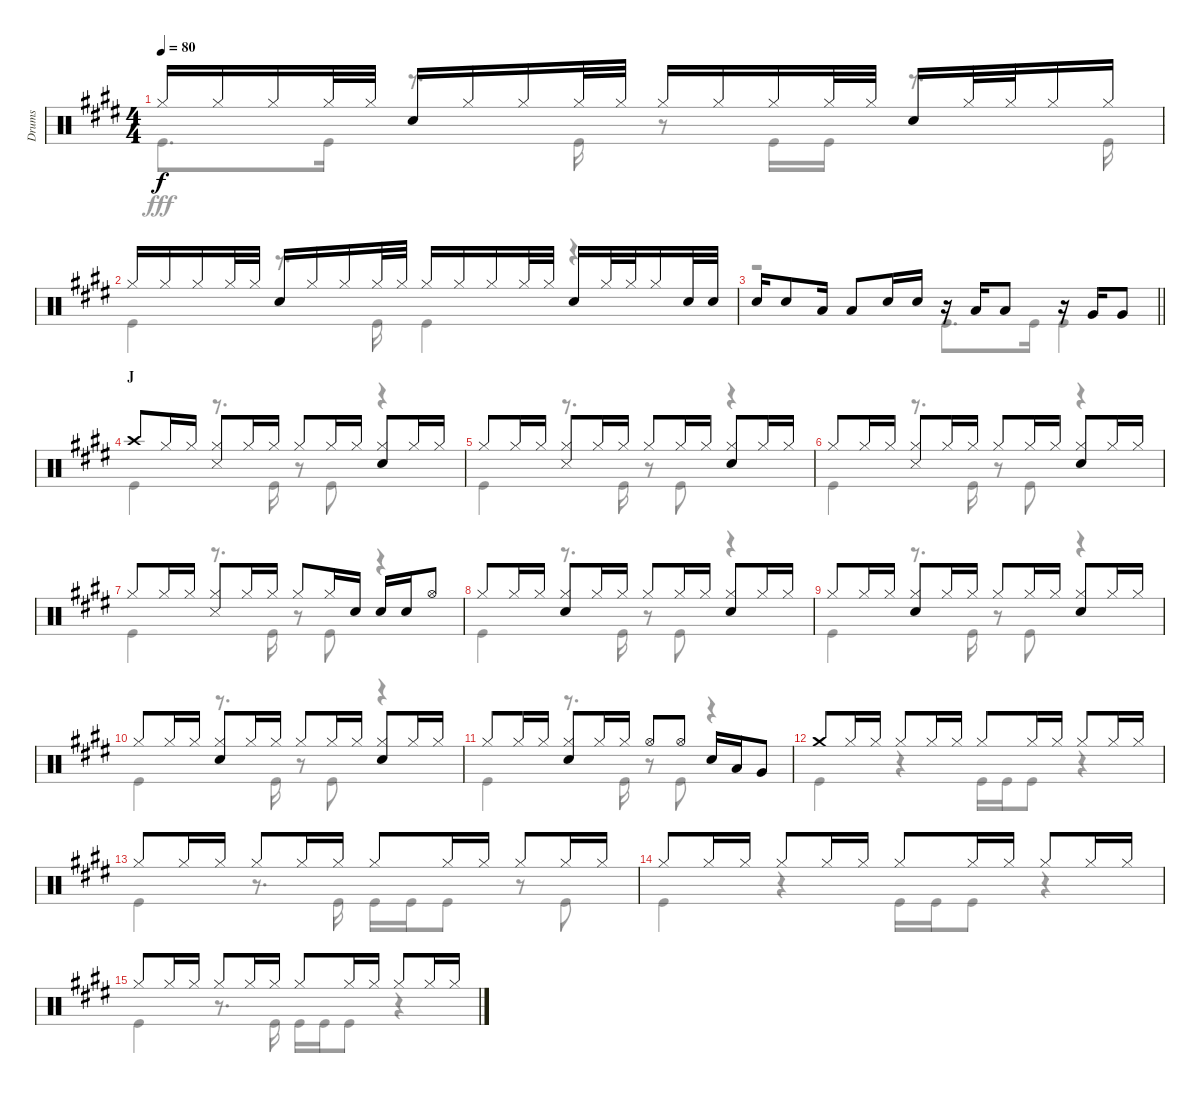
\track ("Drums" "Drums") {instrument percussion}
\staff {score}
\articulation defaults
\voice
\ts (4 4)
\tempo 80
\clef neutral
\ks e "Hi-Hat (closed)".16{dy f} "Hi-Hat (closed)".16 "Hi-Hat (closed)".16 "Hi-Hat (closed)".32 "Hi-Hat (closed)".32 "Snare (hit) 2".16 "Hi-Hat (closed)".16 "Hi-Hat (closed)".16 "Hi-Hat (closed)".32 "Hi-Hat (closed)".32 "Hi-Hat (closed)".16 "Hi-Hat (closed)".16 "Hi-Hat (closed)".16 "Hi-Hat (closed)".32 "Hi-Hat (closed)".32 "Snare (hit) 2".16 "Hi-Hat (closed)".32 "Hi-Hat (closed)".32 "Hi-Hat (closed)".16 "Hi-Hat (closed)".16
|
"Hi-Hat (closed)".16 "Hi-Hat (closed)".16 "Hi-Hat (closed)".16 "Hi-Hat (closed)".32 "Hi-Hat (closed)".32 "Snare (hit) 2".16 "Hi-Hat (closed)".16 "Hi-Hat (closed)".16 "Hi-Hat (closed)".32 "Hi-Hat (closed)".32 "Hi-Hat (closed)".16 "Hi-Hat (closed)".16 "Hi-Hat (closed)".16 "Hi-Hat (closed)".32 "Hi-Hat (closed)".32 "Snare (hit) 2".16 "Hi-Hat (closed)".32 "Hi-Hat (closed)".32 "Hi-Hat (closed)".16 "Snare (hit) 2".32 "Snare (hit) 2".32 |
\barLineRight lightlight "Snare (hit) 2".16 "Snare (hit) 2".8 "Low Tom (hit)".16 "Low Tom (hit)".8 "Snare (hit) 2".16 "Snare (hit) 2".16
r.16 "Low Tom (hit)".16 "Low Tom (hit)".8 r.16 "Very Low Tom (hit)".16 "Very Low Tom (hit)".8 |
\section ("" "J")
"Crash high (hit)".8 "Hi-Hat (closed)".16 "Hi-Hat (closed)".16 ("Hi-Hat (closed)" "Snare (side stick) 3").8 "Hi-Hat (closed)".16 "Hi-Hat (closed)".16 "Hi-Hat (closed)".8 "Hi-Hat (closed)".16 "Hi-Hat (closed)".16 ("Hi-Hat (closed)" "Snare (hit) 2").8 "Hi-Hat (closed)".16 "Hi-Hat (closed)".16 |
"Hi-Hat (closed)".8 "Hi-Hat (closed)".16 "Hi-Hat (closed)".16 ("Hi-Hat (closed)" "Snare (side stick) 3").8 "Hi-Hat (closed)".16 "Hi-Hat (closed)".16 "Hi-Hat (closed)".8 "Hi-Hat (closed)".16 "Hi-Hat (closed)".16 ("Hi-Hat (closed)" "Snare (hit) 2").8 "Hi-Hat (closed)".16 "Hi-Hat (closed)".16 |
"Hi-Hat (closed)".8 "Hi-Hat (closed)".16 "Hi-Hat (closed)".16 ("Hi-Hat (closed)" "Snare (side stick) 3").8 "Hi-Hat (closed)".16 "Hi-Hat (closed)".16 "Hi-Hat (closed)".8 "Hi-Hat (closed)".16 "Hi-Hat (closed)".16 ("Hi-Hat (closed)" "Snare (hit) 2").8 "Hi-Hat (closed)".16 "Hi-Hat (closed)".16 |
"Hi-Hat (closed)".8 "Hi-Hat (closed)".16 "Hi-Hat (closed)".16 ("Hi-Hat (closed)" "Snare (side stick) 3").8 "Hi-Hat (closed)".16 "Hi-Hat (closed)".16 "Hi-Hat (closed)".8 "Hi-Hat (closed)".16 "Snare (hit) 2".16 "Snare (hit) 2".16 "Snare (hit) 2".16 "Hi-Hat (open)".8 |
"Hi-Hat (closed)".8 "Hi-Hat (closed)".16 "Hi-Hat (closed)".16 ("Hi-Hat (closed)" "Snare (hit) 2").8 "Hi-Hat (closed)".16 "Hi-Hat (closed)".16 "Hi-Hat (closed)".8 "Hi-Hat (closed)".16 "Hi-Hat (closed)".16 ("Hi-Hat (closed)" "Snare (hit) 2").8 "Hi-Hat (closed)".16 "Hi-Hat (closed)".16 |
"Hi-Hat (closed)".8 "Hi-Hat (closed)".16 "Hi-Hat (closed)".16 ("Hi-Hat (closed)" "Snare (hit) 2").8 "Hi-Hat (closed)".16 "Hi-Hat (closed)".16 "Hi-Hat (closed)".8 "Hi-Hat (closed)".16 "Hi-Hat (closed)".16 ("Hi-Hat (closed)" "Snare (hit) 2").8 "Hi-Hat (closed)".16 "Hi-Hat (closed)".16 |
"Hi-Hat (closed)".8 "Hi-Hat (closed)".16 "Hi-Hat (closed)".16 ("Hi-Hat (closed)" "Snare (hit) 2").8 "Hi-Hat (closed)".16 "Hi-Hat (closed)".16 "Hi-Hat (closed)".8 "Hi-Hat (closed)".16 "Hi-Hat (closed)".16 ("Hi-Hat (closed)" "Snare (hit) 2").8 "Hi-Hat (closed)".16 "Hi-Hat (closed)".16 |
"Hi-Hat (closed)".8 "Hi-Hat (closed)".16 "Hi-Hat (closed)".16 ("Hi-Hat (closed)" "Snare (hit) 2").8 "Hi-Hat (closed)".16 "Hi-Hat (closed)".16 "Hi-Hat (open)".8 "Hi-Hat (open)".8 "Snare (hit) 2".16 "Low Tom (hit)".16 "Very Low Tom (hit)".8 |
"Crash medium (hit)".8 "Hi-Hat (closed)".16 "Hi-Hat (closed)".16 "Hi-Hat (closed)".8 "Hi-Hat (closed)".16 "Hi-Hat (closed)".16 "Hi-Hat (closed)".8 "Hi-Hat (closed)".16 "Hi-Hat (closed)".16 "Hi-Hat (closed)".8 "Hi-Hat (closed)".16 "Hi-Hat (closed)".16 |
"Hi-Hat (closed)".8 "Hi-Hat (closed)".16 "Hi-Hat (closed)".16 "Hi-Hat (closed)".8 "Hi-Hat (closed)".16 "Hi-Hat (closed)".16 "Hi-Hat (closed)".8 "Hi-Hat (closed)".16 "Hi-Hat (closed)".16 "Hi-Hat (closed)".8 "Hi-Hat (closed)".16 "Hi-Hat (closed)".16 |
"Hi-Hat (closed)".8 "Hi-Hat (closed)".16 "Hi-Hat (closed)".16 "Hi-Hat (closed)".8 "Hi-Hat (closed)".16 "Hi-Hat (closed)".16 "Hi-Hat (closed)".8 "Hi-Hat (closed)".16 "Hi-Hat (closed)".16 "Hi-Hat (closed)".8 "Hi-Hat (closed)".16 "Hi-Hat (closed)".16 |
"Hi-Hat (closed)".8 "Hi-Hat (closed)".16 "Hi-Hat (closed)".16 "Hi-Hat (closed)".8 "Hi-Hat (closed)".16 "Hi-Hat (closed)".16 "Hi-Hat (closed)".8 "Hi-Hat (closed)".16 "Hi-Hat (closed)".16 "Hi-Hat (closed)".8 "Hi-Hat (closed)".16 "Hi-Hat (closed)".16
\voice
\clef neutral
\ottava regular
\simile none
\ks e "Kick (hit)".8{d dy fff} "Kick (hit)".16
r.8{d} "Kick (hit)".16 r.8 "Kick (hit)".16 "Kick (hit)".16 r.8{d} "Kick (hit)".16 |
"Kick (hit)".4 r.8{d} "Kick (hit)".16 "Kick (hit)".4 r.4 |
\barLineRight lightlight
r.2 "Kick (hit)".8{d} "Kick (hit)".16 "Kick (hit)".4 |
"Kick (hit)".4 r.8{d} "Kick (hit)".16 r.8 "Kick (hit)".8 r.4 |
"Kick (hit)".4 r.8{d} "Kick (hit)".16 r.8 "Kick (hit)".8 r.4 |
"Kick (hit)".4 r.8{d} "Kick (hit)".16 r.8 "Kick (hit)".8 r.4 |
"Kick (hit)".4 r.8{d} "Kick (hit)".16 r.8 "Kick (hit)".8 r.4 |
"Kick (hit)".4 r.8{d} "Kick (hit)".16 r.8 "Kick (hit)".8 r.4 |
"Kick (hit)".4 r.8{d} "Kick (hit)".16 r.8 "Kick (hit)".8 r.4 |
"Kick (hit)".4 r.8{d} "Kick (hit)".16 r.8 "Kick (hit)".8 r.4 |
"Kick (hit)".4 r.8{d} "Kick (hit)".16 r.8 "Kick (hit)".8 r.4 |
"Kick (hit)".4 r.4 "Kick (hit)".16 "Kick (hit)".16 "Kick (hit)".8 r.4 |
"Kick (hit)".4 r.8{d} "Kick (hit)".16 "Kick (hit)".16 "Kick (hit)".16 "Kick (hit)".8 r.8 "Kick (hit)".8 |
"Kick (hit)".4 r.4 "Kick (hit)".16 "Kick (hit)".16 "Kick (hit)".8 r.4 |
"Kick (hit)".4 r.8{d} "Kick (hit)".16 "Kick (hit)".16 "Kick (hit)".16 "Kick (hit)".8 r.4
